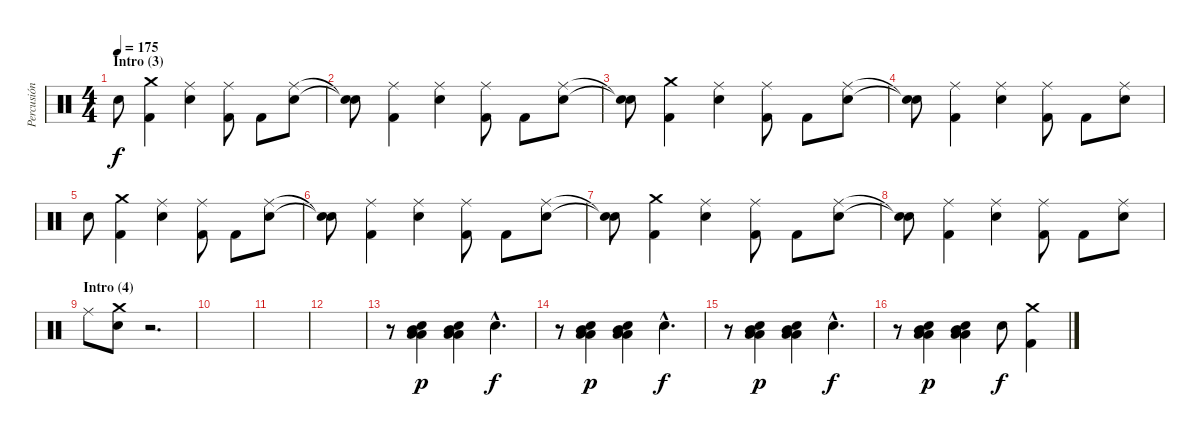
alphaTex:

\track ("Percusión" "Percusión") {instrument percussion}
\staff {score}
\articulation defaults
\ts (4 4)
\section ("" "Intro (3)")
\tempo 175
\clef neutral
\ks c "Snare (hit) 2".8{dy f}
("Crash medium (hit)" "Kick (hit) 2").4 ("Snare (hit) 2" "Ride (middle)").4 ("Ride (middle)" "Kick (hit) 2").8 "Kick (hit) 2".8 ("Ride (middle)" "Snare (hit) 2").8 |
("Snare (hit)"{t} "Snare (hit) 2"{t}).8 ("Ride (middle)" "Kick (hit) 2").4 ("Snare (hit) 2" "Ride (middle)").4 ("Ride (middle)" "Kick (hit) 2").8 "Kick (hit) 2".8 ("Ride (middle)" "Snare (hit) 2").8 |
("Snare (hit)"{t} "Snare (hit) 2"{t}).8 ("Crash medium (hit)" "Kick (hit) 2").4 ("Snare (hit) 2" "Ride (middle)").4 ("Ride (middle)" "Kick (hit) 2").8 "Kick (hit) 2".8 ("Ride (middle)" "Snare (hit) 2").8 |
("Snare (hit)"{t} "Snare (hit) 2"{t}).8 ("Ride (middle)" "Kick (hit) 2").4 ("Snare (hit) 2" "Ride (middle)").4 ("Ride (middle)" "Kick (hit) 2").8 "Kick (hit) 2".8 ("Ride (middle)" "Snare (hit) 2").8 |
"Snare (hit) 2".8 ("Crash medium (hit)" "Kick (hit) 2").4 ("Snare (hit) 2" "Ride (middle)").4 ("Ride (middle)" "Kick (hit) 2").8 "Kick (hit) 2".8 ("Ride (middle)" "Snare (hit) 2").8 |
("Snare (hit)"{t} "Snare (hit) 2"{t}).8 ("Ride (middle)" "Kick (hit) 2").4 ("Snare (hit) 2" "Ride (middle)").4 ("Ride (middle)" "Kick (hit) 2").8 "Kick (hit) 2".8 ("Ride (middle)" "Snare (hit) 2").8 |
("Snare (hit)"{t} "Snare (hit) 2"{t}).8 ("Crash medium (hit)" "Kick (hit) 2").4 ("Snare (hit) 2" "Ride (middle)").4 ("Ride (middle)" "Kick (hit) 2").8 "Kick (hit) 2".8 ("Ride (middle)" "Snare (hit) 2").8 |
("Snare (hit)"{t} "Snare (hit) 2"{t}).8 ("Ride (middle)" "Kick (hit) 2").4 ("Snare (hit) 2" "Ride (middle)").4 ("Ride (middle)" "Kick (hit) 2").8 "Kick (hit) 2".8 ("Ride (middle)" "Snare (hit) 2").8 |
\section ("" "Intro (4)")
"Ride (middle)".8 ("Crash medium (hit)" "Snare (hit) 2").8 r.2{d} |
|
|
|
r.8 ("Low Floor Tom (hit)" "Snare (hit) 2" "Mid Tom (hit)" "Low Tom (hit)").4{dy p} ("Low Floor Tom (hit)" "Snare (hit) 2" "Mid Tom (hit)" "Low Tom (hit)").4 "Snare (hit) 2"{hac}.4{d dy f} |
r.8 ("Low Floor Tom (hit)" "Snare (hit) 2" "Mid Tom (hit)" "Low Tom (hit)").4{dy p} ("Low Floor Tom (hit)" "Snare (hit) 2" "Mid Tom (hit)" "Low Tom (hit)").4 "Snare (hit) 2"{hac}.4{d dy f} |
r.8 ("Low Floor Tom (hit)" "Snare (hit) 2" "Mid Tom (hit)" "Low Tom (hit)").4{dy p} ("Low Floor Tom (hit)" "Snare (hit) 2" "Mid Tom (hit)" "Low Tom (hit)").4 "Snare (hit) 2"{hac}.4{d dy f} |
r.8 ("Low Floor Tom (hit)" "Snare (hit) 2" "Mid Tom (hit)" "Low Tom (hit)").4{dy p} ("Low Floor Tom (hit)" "Snare (hit) 2" "Mid Tom (hit)" "Low Tom (hit)").4 "Snare (hit) 2".8{dy f} ("Kick (hit) 2" "Crash medium (hit)").4
